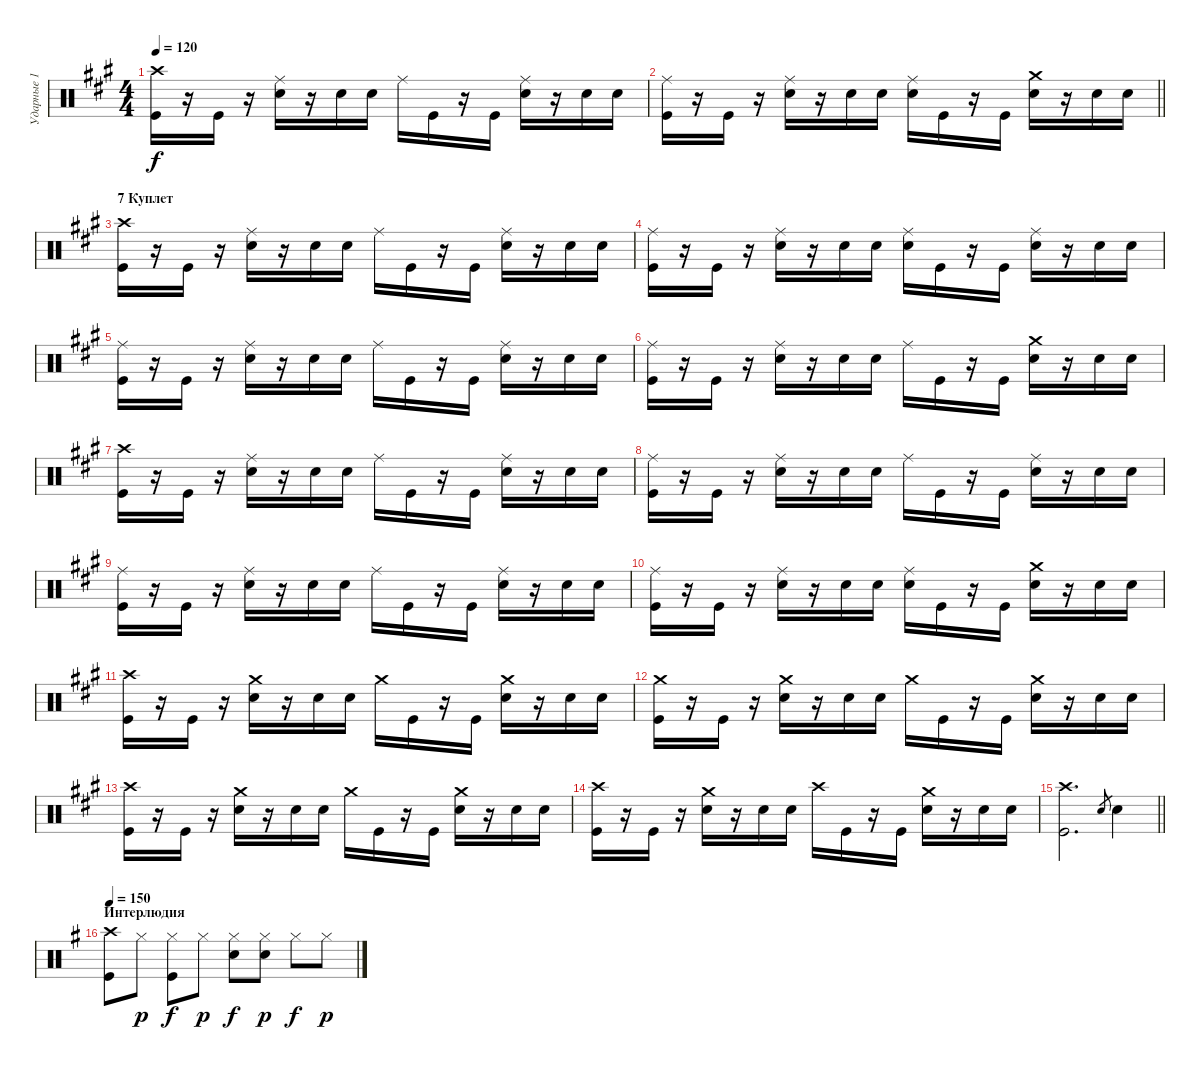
\track ("Ударные 1" "Ударные 1") {instrument percussion}
\staff {score}
\articulation defaults
\ts (4 4)
\tempo 120
\clef neutral
\ks f#minor
("Crash high (hit)" "Kick (hit)").16{dy f} r.16 "Kick (hit)".16 r.16 ("Ride (middle)" "Snare (hit) 2").16 r.16 "Snare (hit) 2".16 "Snare (hit) 2".16 "Ride (middle)".16 "Kick (hit)".16 r.16 "Kick (hit)".16 ("Ride (middle)" "Snare (hit) 2").16 r.16 "Snare (hit) 2".16 "Snare (hit) 2".16 |
\barLineRight lightlight
("Ride (middle)" "Kick (hit)").16 r.16 "Kick (hit)".16 r.16 ("Ride (middle)" "Snare (hit) 2").16 r.16 "Snare (hit) 2".16 "Snare (hit) 2".16 ("Ride (middle)" "Snare (hit) 2").16 "Kick (hit)".16 r.16 "Kick (hit)".16 ("Crash medium (hit)" "Snare (hit) 2").16 r.16 "Snare (hit) 2".16 "Snare (hit) 2".16 |
\section ("" "7 Куплет")
("Crash high (hit)" "Kick (hit)").16 r.16 "Kick (hit)".16 r.16 ("Ride (middle)" "Snare (hit) 2").16 r.16 "Snare (hit) 2".16 "Snare (hit) 2".16 "Ride (middle)".16 "Kick (hit)".16 r.16 "Kick (hit)".16 ("Ride (middle)" "Snare (hit) 2").16 r.16 "Snare (hit) 2".16 "Snare (hit) 2".16 |
("Ride (middle)" "Kick (hit)").16 r.16 "Kick (hit)".16 r.16 ("Ride (middle)" "Snare (hit) 2").16 r.16 "Snare (hit) 2".16 "Snare (hit) 2".16 ("Ride (middle)" "Snare (hit) 2").16 "Kick (hit)".16 r.16 "Kick (hit)".16 ("Ride (middle)" "Snare (hit) 2").16 r.16 "Snare (hit) 2".16 "Snare (hit) 2".16 |
("Ride (middle)" "Kick (hit)").16 r.16 "Kick (hit)".16 r.16 ("Ride (middle)" "Snare (hit) 2").16 r.16 "Snare (hit) 2".16 "Snare (hit) 2".16 "Ride (middle)".16 "Kick (hit)".16 r.16 "Kick (hit)".16 ("Ride (middle)" "Snare (hit) 2").16 r.16 "Snare (hit) 2".16 "Snare (hit) 2".16 |
("Ride (middle)" "Kick (hit)").16 r.16 "Kick (hit)".16 r.16 ("Ride (middle)" "Snare (hit) 2").16 r.16 "Snare (hit) 2".16 "Snare (hit) 2".16 "Ride (middle)".16 "Kick (hit)".16 r.16 "Kick (hit)".16 ("Crash medium (hit)" "Snare (hit) 2").16 r.16 "Snare (hit) 2".16 "Snare (hit) 2".16 |
("Crash high (hit)" "Kick (hit)").16 r.16 "Kick (hit)".16 r.16 ("Ride (middle)" "Snare (hit) 2").16 r.16 "Snare (hit) 2".16 "Snare (hit) 2".16 "Ride (middle)".16 "Kick (hit)".16 r.16 "Kick (hit)".16 ("Ride (middle)" "Snare (hit) 2").16 r.16 "Snare (hit) 2".16 "Snare (hit) 2".16 |
("Ride (middle)" "Kick (hit)").16 r.16 "Kick (hit)".16 r.16 ("Ride (middle)" "Snare (hit) 2").16 r.16 "Snare (hit) 2".16 "Snare (hit) 2".16 "Ride (middle)".16 "Kick (hit)".16 r.16 "Kick (hit)".16 ("Ride (middle)" "Snare (hit) 2").16 r.16 "Snare (hit) 2".16 "Snare (hit) 2".16 |
("Ride (middle)" "Kick (hit)").16 r.16 "Kick (hit)".16 r.16 ("Ride (middle)" "Snare (hit) 2").16 r.16 "Snare (hit) 2".16 "Snare (hit) 2".16 "Ride (middle)".16 "Kick (hit)".16 r.16 "Kick (hit)".16 ("Ride (middle)" "Snare (hit) 2").16 r.16 "Snare (hit) 2".16 "Snare (hit) 2".16 |
("Ride (middle)" "Kick (hit)").16 r.16 "Kick (hit)".16 r.16 ("Ride (middle)" "Snare (hit) 2").16 r.16 "Snare (hit) 2".16 "Snare (hit) 2".16 ("Ride (middle)" "Snare (hit) 2").16 "Kick (hit)".16 r.16 "Kick (hit)".16 ("Crash medium (hit)" "Snare (hit) 2").16 r.16 "Snare (hit) 2".16 "Snare (hit) 2".16 |
("Crash high (hit)" "Kick (hit)").16 r.16 "Kick (hit)".16 r.16 ("Crash medium (hit)" "Snare (hit) 2").16 r.16 "Snare (hit) 2".16 "Snare (hit) 2".16 "Crash medium (hit)".16 "Kick (hit)".16 r.16 "Kick (hit)".16 ("Crash medium (hit)" "Snare (hit) 2").16 r.16 "Snare (hit) 2".16 "Snare (hit) 2".16 |
("Crash medium (hit)" "Kick (hit)").16 r.16 "Kick (hit)".16 r.16 ("Crash medium (hit)" "Snare (hit) 2").16 r.16 "Snare (hit) 2".16 "Snare (hit) 2".16 "Crash medium (hit)".16 "Kick (hit)".16 r.16 "Kick (hit)".16 ("Crash medium (hit)" "Snare (hit) 2").16 r.16 "Snare (hit) 2".16 "Snare (hit) 2".16 |
("Crash high (hit)" "Kick (hit)").16 r.16 "Kick (hit)".16 r.16 ("Crash medium (hit)" "Snare (hit) 2").16 r.16 "Snare (hit) 2".16 "Snare (hit) 2".16 "Crash medium (hit)".16 "Kick (hit)".16 r.16 "Kick (hit)".16 ("Crash medium (hit)" "Snare (hit) 2").16 r.16 "Snare (hit) 2".16 "Snare (hit) 2".16 |
("Crash high (hit)" "Kick (hit)").16 r.16 "Kick (hit)".16 r.16 ("Crash medium (hit)" "Snare (hit) 2").16 r.16 "Snare (hit) 2".16 "Snare (hit) 2".16 "Crash high (hit)".16 "Kick (hit)".16 r.16 "Kick (hit)".16 ("Crash medium (hit)" "Snare (hit) 2").16 r.16 "Snare (hit) 2".16 "Snare (hit) 2".16 |
\barLineRight lightlight
("Crash high (hit)" "Kick (hit)").2{d} "Snare (hit) 2".8{gr} "Snare (hit) 2".4 |
\section ("" "Интерлюдия")
\tempo 150
\ks eminor
("Crash high (hit)" "Kick (hit)").8 "Hi-Hat (closed)".8{dy p} ("Hi-Hat (closed)" "Kick (hit)").8{dy f} "Hi-Hat (closed)".8{dy p} ("Hi-Hat (closed)" "Snare (hit) 2").8{dy f} ("Hi-Hat (closed)" "Snare (hit) 2").8{dy p} "Hi-Hat (closed)".8{dy f} "Hi-Hat (closed)".8{dy p}
